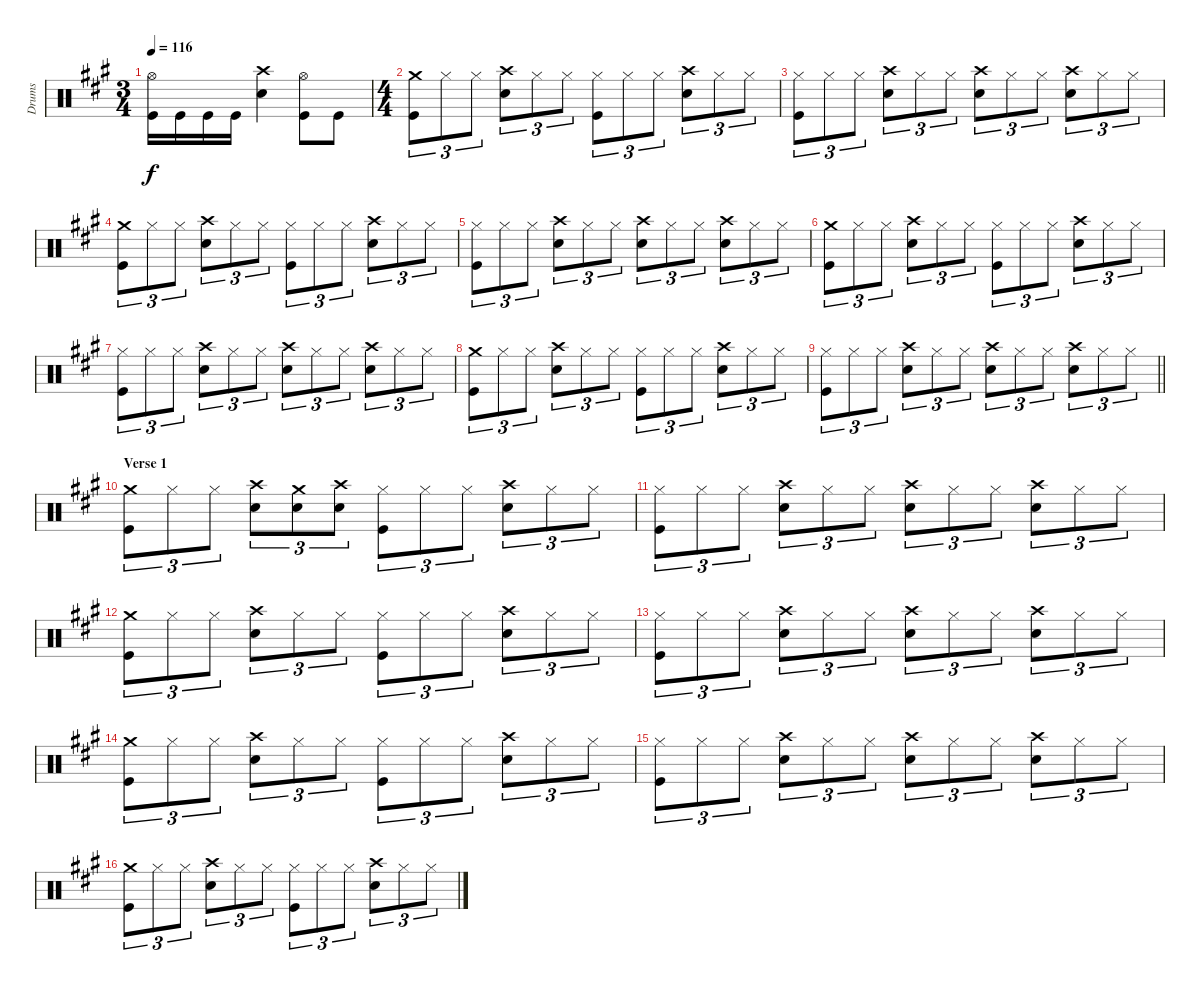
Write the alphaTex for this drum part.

\track ("Drums" "Drums") {instrument percussion}
\staff {score}
\articulation defaults
\ts (3 4)
\tempo 116
\clef neutral
\ks a
("Hi-Hat (open)" "Kick (hit)").16{dy f} "Kick (hit)".16 "Kick (hit)".16 "Kick (hit)".16 ("Crash high (hit)" "Snare (hit) 2").4 ("Hi-Hat (open)" "Kick (hit)").8 "Kick (hit)".8 |
\ts (4 4)
("Crash medium (hit)" "Kick (hit)").8{tu (3 2)} "Hi-Hat (closed)".8{tu (3 2)} "Hi-Hat (closed)".8{tu (3 2)} ("Crash high (hit)" "Snare (hit) 2").8{tu (3 2)} "Hi-Hat (closed)".8{tu (3 2)} "Hi-Hat (closed)".8{tu (3 2)} ("Hi-Hat (closed)" "Kick (hit)").8{tu (3 2)} "Hi-Hat (closed)".8{tu (3 2)} "Hi-Hat (closed)".8{tu (3 2)} ("Crash high (hit)" "Snare (hit) 2").8{tu (3 2)} "Hi-Hat (closed)".8{tu (3 2)} "Hi-Hat (closed)".8{tu (3 2)} |
("Hi-Hat (closed)" "Kick (hit)").8{tu (3 2)} "Hi-Hat (closed)".8{tu (3 2)} "Hi-Hat (closed)".8{tu (3 2)} ("Crash high (hit)" "Snare (hit) 2").8{tu (3 2)} "Hi-Hat (closed)".8{tu (3 2)} "Hi-Hat (closed)".8{tu (3 2)} ("Crash high (hit)" "Snare (hit) 2").8{tu (3 2)} "Hi-Hat (closed)".8{tu (3 2)} "Hi-Hat (closed)".8{tu (3 2)} ("Crash high (hit)" "Snare (hit) 2").8{tu (3 2)} "Hi-Hat (closed)".8{tu (3 2)} "Hi-Hat (closed)".8{tu (3 2)} |
("Crash medium (hit)" "Kick (hit)").8{tu (3 2)} "Hi-Hat (closed)".8{tu (3 2)} "Hi-Hat (closed)".8{tu (3 2)} ("Crash high (hit)" "Snare (hit) 2").8{tu (3 2)} "Hi-Hat (closed)".8{tu (3 2)} "Hi-Hat (closed)".8{tu (3 2)} ("Hi-Hat (closed)" "Kick (hit)").8{tu (3 2)} "Hi-Hat (closed)".8{tu (3 2)} "Hi-Hat (closed)".8{tu (3 2)} ("Crash high (hit)" "Snare (hit) 2").8{tu (3 2)} "Hi-Hat (closed)".8{tu (3 2)} "Hi-Hat (closed)".8{tu (3 2)} |
("Hi-Hat (closed)" "Kick (hit)").8{tu (3 2)} "Hi-Hat (closed)".8{tu (3 2)} "Hi-Hat (closed)".8{tu (3 2)} ("Crash high (hit)" "Snare (hit) 2").8{tu (3 2)} "Hi-Hat (closed)".8{tu (3 2)} "Hi-Hat (closed)".8{tu (3 2)} ("Crash high (hit)" "Snare (hit) 2").8{tu (3 2)} "Hi-Hat (closed)".8{tu (3 2)} "Hi-Hat (closed)".8{tu (3 2)} ("Crash high (hit)" "Snare (hit) 2").8{tu (3 2)} "Hi-Hat (closed)".8{tu (3 2)} "Hi-Hat (closed)".8{tu (3 2)} |
("Crash medium (hit)" "Kick (hit)").8{tu (3 2)} "Hi-Hat (closed)".8{tu (3 2)} "Hi-Hat (closed)".8{tu (3 2)} ("Crash high (hit)" "Snare (hit) 2").8{tu (3 2)} "Hi-Hat (closed)".8{tu (3 2)} "Hi-Hat (closed)".8{tu (3 2)} ("Hi-Hat (closed)" "Kick (hit)").8{tu (3 2)} "Hi-Hat (closed)".8{tu (3 2)} "Hi-Hat (closed)".8{tu (3 2)} ("Crash high (hit)" "Snare (hit) 2").8{tu (3 2)} "Hi-Hat (closed)".8{tu (3 2)} "Hi-Hat (closed)".8{tu (3 2)} |
("Hi-Hat (closed)" "Kick (hit)").8{tu (3 2)} "Hi-Hat (closed)".8{tu (3 2)} "Hi-Hat (closed)".8{tu (3 2)} ("Crash high (hit)" "Snare (hit) 2").8{tu (3 2)} "Hi-Hat (closed)".8{tu (3 2)} "Hi-Hat (closed)".8{tu (3 2)} ("Crash high (hit)" "Snare (hit) 2").8{tu (3 2)} "Hi-Hat (closed)".8{tu (3 2)} "Hi-Hat (closed)".8{tu (3 2)} ("Crash high (hit)" "Snare (hit) 2").8{tu (3 2)} "Hi-Hat (closed)".8{tu (3 2)} "Hi-Hat (closed)".8{tu (3 2)} |
("Crash medium (hit)" "Kick (hit)").8{tu (3 2)} "Hi-Hat (closed)".8{tu (3 2)} "Hi-Hat (closed)".8{tu (3 2)} ("Crash high (hit)" "Snare (hit) 2").8{tu (3 2)} "Hi-Hat (closed)".8{tu (3 2)} "Hi-Hat (closed)".8{tu (3 2)} ("Hi-Hat (closed)" "Kick (hit)").8{tu (3 2)} "Hi-Hat (closed)".8{tu (3 2)} "Hi-Hat (closed)".8{tu (3 2)} ("Crash high (hit)" "Snare (hit) 2").8{tu (3 2)} "Hi-Hat (closed)".8{tu (3 2)} "Hi-Hat (closed)".8{tu (3 2)} |
\barLineRight lightlight
("Hi-Hat (closed)" "Kick (hit)").8{tu (3 2)} "Hi-Hat (closed)".8{tu (3 2)} "Hi-Hat (closed)".8{tu (3 2)} ("Crash high (hit)" "Snare (hit) 2").8{tu (3 2)} "Hi-Hat (closed)".8{tu (3 2)} "Hi-Hat (closed)".8{tu (3 2)} ("Crash high (hit)" "Snare (hit) 2").8{tu (3 2)} "Hi-Hat (closed)".8{tu (3 2)} "Hi-Hat (closed)".8{tu (3 2)} ("Crash high (hit)" "Snare (hit) 2").8{tu (3 2)} "Hi-Hat (closed)".8{tu (3 2)} "Hi-Hat (closed)".8{tu (3 2)} |
\section ("" "Verse 1")
("Crash medium (hit)" "Kick (hit)").8{tu (3 2)} "Hi-Hat (closed)".8{tu (3 2)} "Hi-Hat (closed)".8{tu (3 2)} ("Crash high (hit)" "Snare (hit) 2").8{tu (3 2)} ("Crash medium (hit)" "Snare (hit) 2").8{tu (3 2)} ("Crash high (hit)" "Snare (hit) 2").8{tu (3 2)} ("Hi-Hat (closed)" "Kick (hit)").8{tu (3 2)} "Hi-Hat (closed)".8{tu (3 2)} "Hi-Hat (closed)".8{tu (3 2)} ("Crash high (hit)" "Snare (hit) 2").8{tu (3 2)} "Hi-Hat (closed)".8{tu (3 2)} "Hi-Hat (closed)".8{tu (3 2)} |
("Hi-Hat (closed)" "Kick (hit)").8{tu (3 2)} "Hi-Hat (closed)".8{tu (3 2)} "Hi-Hat (closed)".8{tu (3 2)} ("Crash high (hit)" "Snare (hit) 2").8{tu (3 2)} "Hi-Hat (closed)".8{tu (3 2)} "Hi-Hat (closed)".8{tu (3 2)} ("Crash high (hit)" "Snare (hit) 2").8{tu (3 2)} "Hi-Hat (closed)".8{tu (3 2)} "Hi-Hat (closed)".8{tu (3 2)} ("Crash high (hit)" "Snare (hit) 2").8{tu (3 2)} "Hi-Hat (closed)".8{tu (3 2)} "Hi-Hat (closed)".8{tu (3 2)} |
("Crash medium (hit)" "Kick (hit)").8{tu (3 2)} "Hi-Hat (closed)".8{tu (3 2)} "Hi-Hat (closed)".8{tu (3 2)} ("Crash high (hit)" "Snare (hit) 2").8{tu (3 2)} "Hi-Hat (closed)".8{tu (3 2)} "Hi-Hat (closed)".8{tu (3 2)} ("Hi-Hat (closed)" "Kick (hit)").8{tu (3 2)} "Hi-Hat (closed)".8{tu (3 2)} "Hi-Hat (closed)".8{tu (3 2)} ("Crash high (hit)" "Snare (hit) 2").8{tu (3 2)} "Hi-Hat (closed)".8{tu (3 2)} "Hi-Hat (closed)".8{tu (3 2)} |
("Hi-Hat (closed)" "Kick (hit)").8{tu (3 2)} "Hi-Hat (closed)".8{tu (3 2)} "Hi-Hat (closed)".8{tu (3 2)} ("Crash high (hit)" "Snare (hit) 2").8{tu (3 2)} "Hi-Hat (closed)".8{tu (3 2)} "Hi-Hat (closed)".8{tu (3 2)} ("Crash high (hit)" "Snare (hit) 2").8{tu (3 2)} "Hi-Hat (closed)".8{tu (3 2)} "Hi-Hat (closed)".8{tu (3 2)} ("Crash high (hit)" "Snare (hit) 2").8{tu (3 2)} "Hi-Hat (closed)".8{tu (3 2)} "Hi-Hat (closed)".8{tu (3 2)} |
("Crash medium (hit)" "Kick (hit)").8{tu (3 2)} "Hi-Hat (closed)".8{tu (3 2)} "Hi-Hat (closed)".8{tu (3 2)} ("Crash high (hit)" "Snare (hit) 2").8{tu (3 2)} "Hi-Hat (closed)".8{tu (3 2)} "Hi-Hat (closed)".8{tu (3 2)} ("Hi-Hat (closed)" "Kick (hit)").8{tu (3 2)} "Hi-Hat (closed)".8{tu (3 2)} "Hi-Hat (closed)".8{tu (3 2)} ("Crash high (hit)" "Snare (hit) 2").8{tu (3 2)} "Hi-Hat (closed)".8{tu (3 2)} "Hi-Hat (closed)".8{tu (3 2)} |
("Hi-Hat (closed)" "Kick (hit)").8{tu (3 2)} "Hi-Hat (closed)".8{tu (3 2)} "Hi-Hat (closed)".8{tu (3 2)} ("Crash high (hit)" "Snare (hit) 2").8{tu (3 2)} "Hi-Hat (closed)".8{tu (3 2)} "Hi-Hat (closed)".8{tu (3 2)} ("Crash high (hit)" "Snare (hit) 2").8{tu (3 2)} "Hi-Hat (closed)".8{tu (3 2)} "Hi-Hat (closed)".8{tu (3 2)} ("Crash high (hit)" "Snare (hit) 2").8{tu (3 2)} "Hi-Hat (closed)".8{tu (3 2)} "Hi-Hat (closed)".8{tu (3 2)} |
("Crash medium (hit)" "Kick (hit)").8{tu (3 2)} "Hi-Hat (closed)".8{tu (3 2)} "Hi-Hat (closed)".8{tu (3 2)} ("Crash high (hit)" "Snare (hit) 2").8{tu (3 2)} "Hi-Hat (closed)".8{tu (3 2)} "Hi-Hat (closed)".8{tu (3 2)} ("Hi-Hat (closed)" "Kick (hit)").8{tu (3 2)} "Hi-Hat (closed)".8{tu (3 2)} "Hi-Hat (closed)".8{tu (3 2)} ("Crash high (hit)" "Snare (hit) 2").8{tu (3 2)} "Hi-Hat (closed)".8{tu (3 2)} "Hi-Hat (closed)".8{tu (3 2)}
